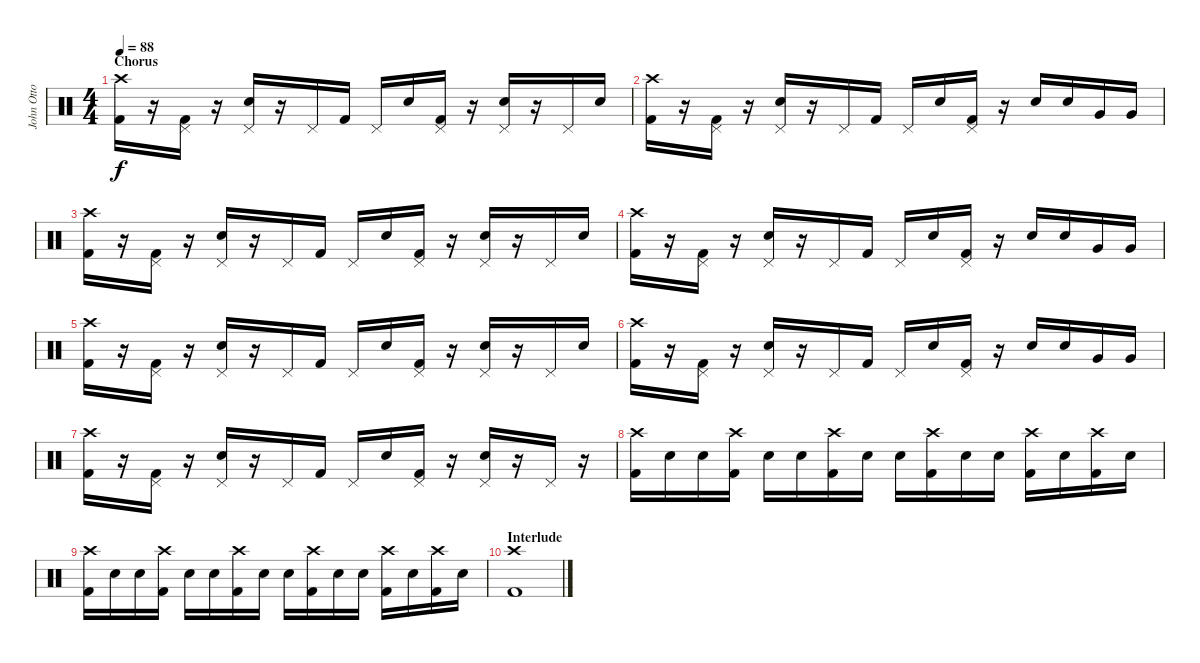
\track ("John Otto" "John Otto") {instrument percussion}
\staff {score}
\articulation defaults
\ts (4 4)
\section ("" "Chorus")
\tempo 88
\clef neutral
\ks c
("Crash high (hit)" "Kick (hit) 2").16{dy f} r.16 ("Pedal Hi-Hat (hit)" "Kick (hit) 2").16 r.16 ("Pedal Hi-Hat (hit)" "Snare (hit) 2").16 r.16 "Pedal Hi-Hat (hit)".16 "Kick (hit) 2".16 "Pedal Hi-Hat (hit)".16 "Snare (hit) 2".16 ("Pedal Hi-Hat (hit)" "Kick (hit) 2").16 r.16 ("Pedal Hi-Hat (hit)" "Snare (hit) 2").16 r.16 "Pedal Hi-Hat (hit)".16 "Electric Snare (hit)".16 |
("Crash high (hit)" "Kick (hit) 2").16 r.16 ("Pedal Hi-Hat (hit)" "Kick (hit) 2").16 r.16 ("Pedal Hi-Hat (hit)" "Snare (hit) 2").16 r.16 "Pedal Hi-Hat (hit)".16 "Kick (hit) 2".16 "Pedal Hi-Hat (hit)".16 "Snare (hit) 2".16 ("Pedal Hi-Hat (hit)" "Kick (hit) 2").16 r.16 "Electric Snare (hit)".16 "Electric Snare (hit)".16 "Very Low Tom (hit)".16 "Very Low Tom (hit)".16 |
("Crash high (hit)" "Kick (hit) 2").16 r.16 ("Pedal Hi-Hat (hit)" "Kick (hit) 2").16 r.16 ("Pedal Hi-Hat (hit)" "Snare (hit) 2").16 r.16 "Pedal Hi-Hat (hit)".16 "Kick (hit) 2".16 "Pedal Hi-Hat (hit)".16 "Snare (hit) 2".16 ("Pedal Hi-Hat (hit)" "Kick (hit) 2").16 r.16 ("Pedal Hi-Hat (hit)" "Snare (hit) 2").16 r.16 "Pedal Hi-Hat (hit)".16 "Electric Snare (hit)".16 |
("Crash high (hit)" "Kick (hit) 2").16 r.16 ("Pedal Hi-Hat (hit)" "Kick (hit) 2").16 r.16 ("Pedal Hi-Hat (hit)" "Snare (hit) 2").16 r.16 "Pedal Hi-Hat (hit)".16 "Kick (hit) 2".16 "Pedal Hi-Hat (hit)".16 "Snare (hit) 2".16 ("Pedal Hi-Hat (hit)" "Kick (hit) 2").16 r.16 "Electric Snare (hit)".16 "Electric Snare (hit)".16 "Very Low Tom (hit)".16 "Very Low Tom (hit)".16 |
("Crash high (hit)" "Kick (hit) 2").16 r.16 ("Pedal Hi-Hat (hit)" "Kick (hit) 2").16 r.16 ("Pedal Hi-Hat (hit)" "Snare (hit) 2").16 r.16 "Pedal Hi-Hat (hit)".16 "Kick (hit) 2".16 "Pedal Hi-Hat (hit)".16 "Snare (hit) 2".16 ("Pedal Hi-Hat (hit)" "Kick (hit) 2").16 r.16 ("Pedal Hi-Hat (hit)" "Snare (hit) 2").16 r.16 "Pedal Hi-Hat (hit)".16 "Electric Snare (hit)".16 |
("Crash high (hit)" "Kick (hit) 2").16 r.16 ("Pedal Hi-Hat (hit)" "Kick (hit) 2").16 r.16 ("Pedal Hi-Hat (hit)" "Snare (hit) 2").16 r.16 "Pedal Hi-Hat (hit)".16 "Kick (hit) 2".16 "Pedal Hi-Hat (hit)".16 "Snare (hit) 2".16 ("Pedal Hi-Hat (hit)" "Kick (hit) 2").16 r.16 "Electric Snare (hit)".16 "Electric Snare (hit)".16 "Very Low Tom (hit)".16 "Very Low Tom (hit)".16 |
("Crash high (hit)" "Kick (hit) 2").16 r.16 ("Pedal Hi-Hat (hit)" "Kick (hit) 2").16 r.16 ("Pedal Hi-Hat (hit)" "Snare (hit) 2").16 r.16 "Pedal Hi-Hat (hit)".16 "Kick (hit) 2".16 "Pedal Hi-Hat (hit)".16 "Snare (hit) 2".16 ("Pedal Hi-Hat (hit)" "Kick (hit) 2").16 r.16 ("Pedal Hi-Hat (hit)" "Snare (hit) 2").16 r.16 "Pedal Hi-Hat (hit)".16 r.16 |
("Crash high (hit)" "Kick (hit) 2").16 "Snare (hit) 2".16 "Snare (hit) 2".16 ("Crash high (hit)" "Kick (hit) 2").16 "Snare (hit) 2".16 "Snare (hit) 2".16 ("Crash high (hit)" "Kick (hit) 2").16 "Snare (hit) 2".16 "Snare (hit) 2".16 ("Crash high (hit)" "Kick (hit) 2").16 "Snare (hit) 2".16 "Snare (hit) 2".16 ("Crash high (hit)" "Kick (hit) 2").16 "Snare (hit) 2".16 ("Crash high (hit)" "Kick (hit) 2").16 "Snare (hit) 2".16 |
("Crash high (hit)" "Kick (hit) 2").16 "Snare (hit) 2".16 "Snare (hit) 2".16 ("Crash high (hit)" "Kick (hit) 2").16 "Snare (hit) 2".16 "Snare (hit) 2".16 ("Crash high (hit)" "Kick (hit) 2").16 "Snare (hit) 2".16 "Snare (hit) 2".16 ("Crash high (hit)" "Kick (hit) 2").16 "Snare (hit) 2".16 "Snare (hit) 2".16 ("Crash high (hit)" "Kick (hit) 2").16 "Snare (hit) 2".16 ("Crash high (hit)" "Kick (hit) 2").16 "Snare (hit) 2".16 |
\section ("" "Interlude")
("Crash high (hit)" "Kick (hit) 2").1
